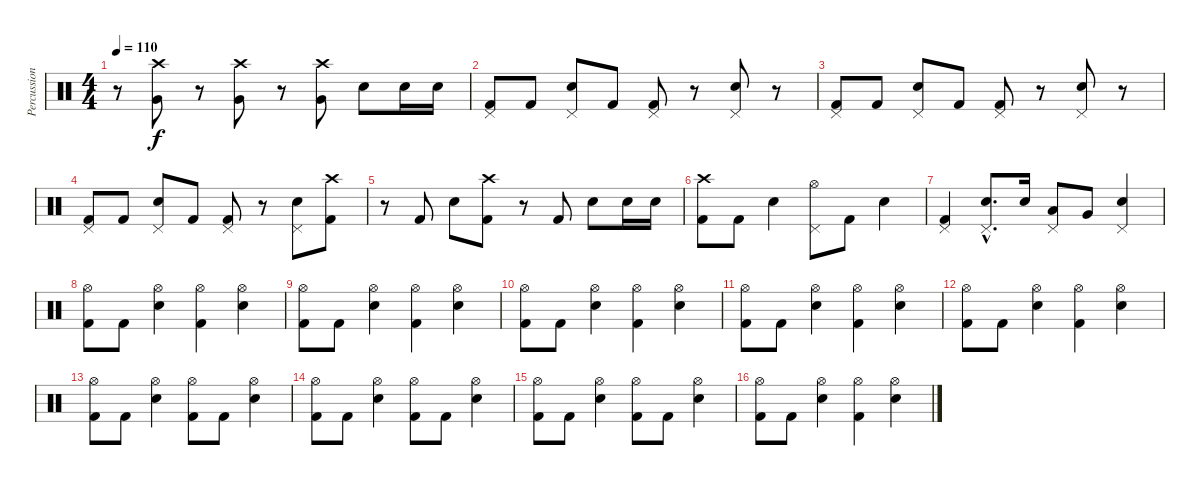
\track ("Percussion" "Percussion") {instrument percussion}
\staff {score}
\articulation defaults
\ts (4 4)
\tempo 110
\clef neutral
\ks c
r.8{dy f} ("Crash high (hit)" "Very Low Tom (hit)").8 r.8 ("Crash high (hit)" "Very Low Tom (hit)").8 r.8 ("Crash high (hit)" "Very Low Tom (hit)").8 "Electric Snare (hit)".8 "Electric Snare (hit)".16 "Electric Snare (hit)".16 |
("Pedal Hi-Hat (hit)" "Kick (hit) 2").8 "Kick (hit) 2".8 ("Electric Snare (hit)" "Pedal Hi-Hat (hit)").8 "Kick (hit) 2".8 ("Pedal Hi-Hat (hit)" "Kick (hit) 2").8 r.8 ("Electric Snare (hit)" "Pedal Hi-Hat (hit)").8 r.8 |
("Pedal Hi-Hat (hit)" "Kick (hit) 2").8 "Kick (hit) 2".8 ("Electric Snare (hit)" "Pedal Hi-Hat (hit)").8 "Kick (hit) 2".8 ("Pedal Hi-Hat (hit)" "Kick (hit) 2").8 r.8 ("Electric Snare (hit)" "Pedal Hi-Hat (hit)").8 r.8 |
("Pedal Hi-Hat (hit)" "Kick (hit) 2").8 "Kick (hit) 2".8 ("Electric Snare (hit)" "Pedal Hi-Hat (hit)").8 "Kick (hit) 2".8 ("Pedal Hi-Hat (hit)" "Kick (hit) 2").8 r.8 ("Electric Snare (hit)" "Pedal Hi-Hat (hit)").8 ("Kick (hit) 2" "Crash high (hit)").8 |
r.8 "Kick (hit) 2".8 "Electric Snare (hit)".8 ("Kick (hit) 2" "Crash high (hit)").8 r.8 "Kick (hit) 2".8 "Electric Snare (hit)".8 "Electric Snare (hit)".16 "Electric Snare (hit)".16 |
("Crash high (hit)" "Kick (hit) 2").8 "Kick (hit) 2".8 "Electric Snare (hit)".4 ("Hi-Hat (open)" "Pedal Hi-Hat (hit)").8 "Kick (hit) 2".8 "Electric Snare (hit)".4 |
("Pedal Hi-Hat (hit)" "Kick (hit) 2").4 ("Electric Snare (hit)"{hac} "Pedal Hi-Hat (hit)"{hac}).8{d} "Electric Snare (hit)".16 ("Pedal Hi-Hat (hit)" "Low Floor Tom (hit)").8 "Very Low Tom (hit)".8 ("Electric Snare (hit)" "Pedal Hi-Hat (hit)").4 |
("Hi-Hat (open)" "Kick (hit) 2").8 "Kick (hit) 2".8 ("Electric Snare (hit)" "Hi-Hat (open)").4 ("Hi-Hat (open)" "Kick (hit) 2").4 ("Electric Snare (hit)" "Hi-Hat (open)").4 |
("Hi-Hat (open)" "Kick (hit) 2").8 "Kick (hit) 2".8 ("Electric Snare (hit)" "Hi-Hat (open)").4 ("Hi-Hat (open)" "Kick (hit) 2").4 ("Electric Snare (hit)" "Hi-Hat (open)").4 |
("Hi-Hat (open)" "Kick (hit) 2").8 "Kick (hit) 2".8 ("Electric Snare (hit)" "Hi-Hat (open)").4 ("Hi-Hat (open)" "Kick (hit) 2").4 ("Electric Snare (hit)" "Hi-Hat (open)").4 |
("Hi-Hat (open)" "Kick (hit) 2").8 "Kick (hit) 2".8 ("Electric Snare (hit)" "Hi-Hat (open)").4 ("Hi-Hat (open)" "Kick (hit) 2").4 ("Electric Snare (hit)" "Hi-Hat (open)").4 |
("Hi-Hat (open)" "Kick (hit) 2").8 "Kick (hit) 2".8 ("Electric Snare (hit)" "Hi-Hat (open)").4 ("Hi-Hat (open)" "Kick (hit) 2").4 ("Electric Snare (hit)" "Hi-Hat (open)").4 |
("Hi-Hat (open)" "Kick (hit) 2").8 "Kick (hit) 2".8 ("Electric Snare (hit)" "Hi-Hat (open)").4 ("Hi-Hat (open)" "Kick (hit) 2").8 "Kick (hit) 2".8 ("Electric Snare (hit)" "Hi-Hat (open)").4 |
("Hi-Hat (open)" "Kick (hit) 2").8 "Kick (hit) 2".8 ("Electric Snare (hit)" "Hi-Hat (open)").4 ("Hi-Hat (open)" "Kick (hit) 2").8 "Kick (hit) 2".8 ("Electric Snare (hit)" "Hi-Hat (open)").4 |
("Hi-Hat (open)" "Kick (hit) 2").8 "Kick (hit) 2".8 ("Electric Snare (hit)" "Hi-Hat (open)").4 ("Hi-Hat (open)" "Kick (hit) 2").8 "Kick (hit) 2".8 ("Electric Snare (hit)" "Hi-Hat (open)").4 |
("Hi-Hat (open)" "Kick (hit) 2").8 "Kick (hit) 2".8 ("Electric Snare (hit)" "Hi-Hat (open)").4 ("Hi-Hat (open)" "Kick (hit) 2").4 ("Electric Snare (hit)" "Hi-Hat (open)").4
